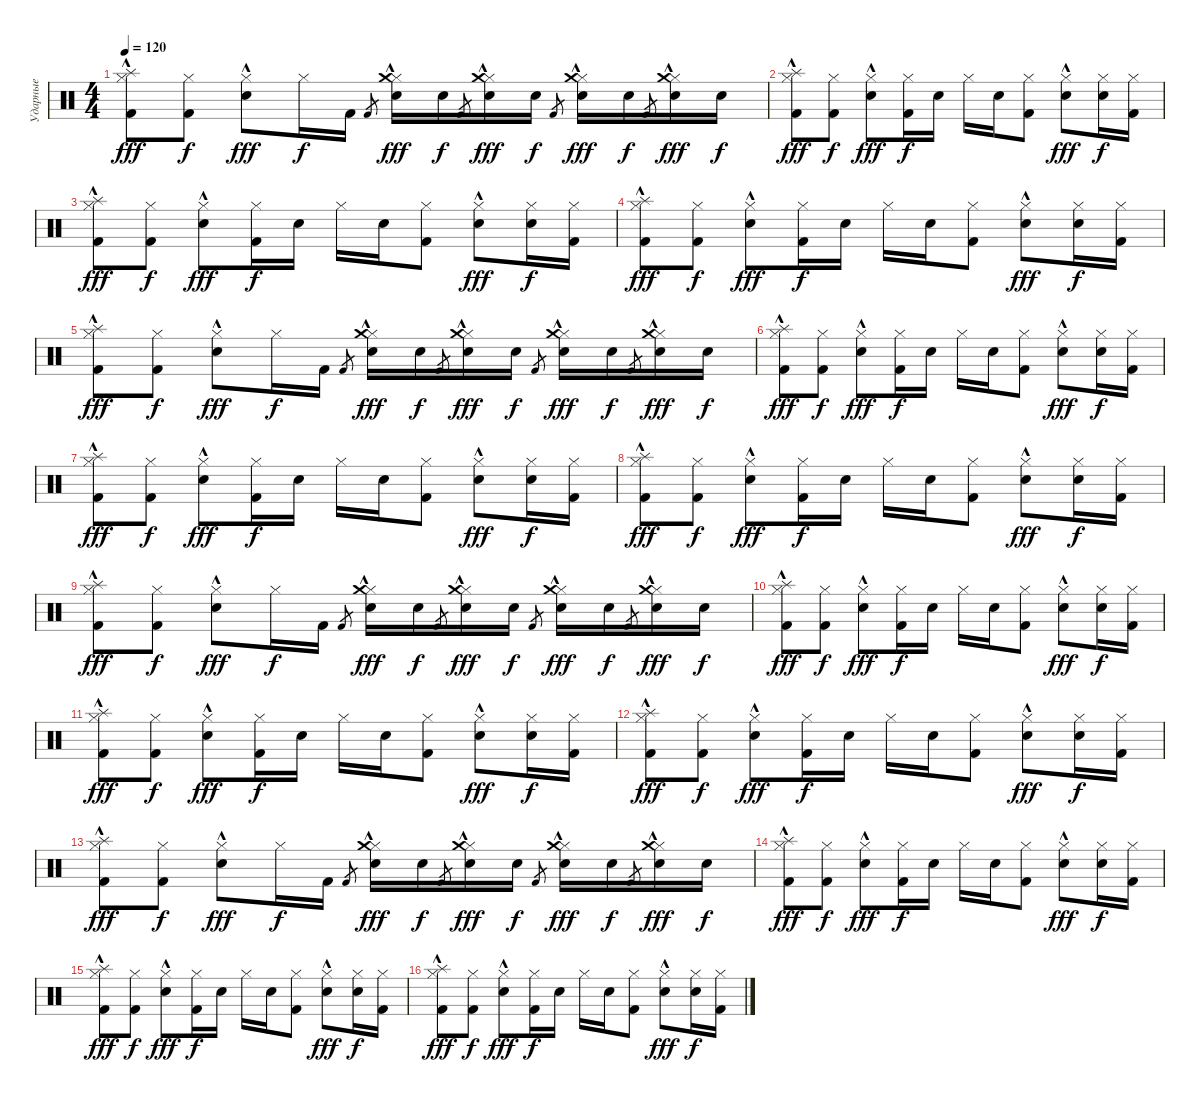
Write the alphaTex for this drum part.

\track ("Ударные" "Ударные") {instrument percussion}
\staff {score}
\articulation defaults
\ts (4 4)
\tempo 120
\clef neutral
\ks c
("Hi-Hat (closed)" "Splash (hit)" "Kick (hit) 2"{hac}).8{dy fff} ("Hi-Hat (closed)" "Kick (hit) 2").8{dy f} ("Hi-Hat (closed)" "Snare (hit) 2"{hac}).8{dy fff} "Hi-Hat (closed)".16{dy f} "Kick (hit) 2".16 "Kick (hit) 2".8{gr} ("Hi-Hat (closed)" "Crash medium (hit)" "Electric Snare (hit)"{hac}).16{dy fff} "Snare (hit) 2".16{dy f} "Kick (hit) 2".8{gr} ("Hi-Hat (closed)" "Crash medium (hit)" "Electric Snare (hit)"{hac}).16{dy fff} "Snare (hit) 2".16{dy f} "Kick (hit) 2".8{gr} ("Hi-Hat (closed)" "Crash medium (hit)" "Electric Snare (hit)"{hac}).16{dy fff} "Snare (hit) 2".16{dy f} "Kick (hit) 2".8{gr} ("Hi-Hat (closed)" "Crash medium (hit)" "Electric Snare (hit)"{hac}).16{dy fff} "Snare (hit) 2".16{dy f} |
("Hi-Hat (closed)" "Splash (hit)" "Kick (hit) 2"{hac}).8{dy fff} ("Hi-Hat (closed)" "Kick (hit) 2").8{dy f} ("Hi-Hat (closed)" "Snare (hit) 2"{hac}).8{dy fff} ("Hi-Hat (closed)" "Kick (hit) 2").16{dy f} "Snare (hit) 2".16 "Hi-Hat (closed)".16 "Snare (hit) 2".16 ("Hi-Hat (closed)" "Kick (hit) 2").8 ("Hi-Hat (closed)" "Snare (hit) 2"{hac}).8{dy fff} ("Hi-Hat (closed)" "Snare (hit) 2").16{dy f} ("Hi-Hat (closed)" "Kick (hit) 2").16 |
("Hi-Hat (closed)" "Splash (hit)" "Kick (hit) 2"{hac}).8{dy fff} ("Hi-Hat (closed)" "Kick (hit) 2").8{dy f} ("Hi-Hat (closed)" "Snare (hit) 2"{hac}).8{dy fff} ("Hi-Hat (closed)" "Kick (hit) 2").16{dy f} "Snare (hit) 2".16 "Hi-Hat (closed)".16 "Snare (hit) 2".16 ("Hi-Hat (closed)" "Kick (hit) 2").8 ("Hi-Hat (closed)" "Snare (hit) 2"{hac}).8{dy fff} ("Hi-Hat (closed)" "Snare (hit) 2").16{dy f} ("Hi-Hat (closed)" "Kick (hit) 2").16 |
("Hi-Hat (closed)" "Splash (hit)" "Kick (hit) 2"{hac}).8{dy fff} ("Hi-Hat (closed)" "Kick (hit) 2").8{dy f} ("Hi-Hat (closed)" "Snare (hit) 2"{hac}).8{dy fff} ("Hi-Hat (closed)" "Kick (hit) 2").16{dy f} "Snare (hit) 2".16 "Hi-Hat (closed)".16 "Snare (hit) 2".16 ("Hi-Hat (closed)" "Kick (hit) 2").8 ("Hi-Hat (closed)" "Snare (hit) 2"{hac}).8{dy fff} ("Hi-Hat (closed)" "Snare (hit) 2").16{dy f} ("Hi-Hat (closed)" "Kick (hit) 2").16 |
("Hi-Hat (closed)" "Splash (hit)" "Kick (hit) 2"{hac}).8{dy fff} ("Hi-Hat (closed)" "Kick (hit) 2").8{dy f} ("Hi-Hat (closed)" "Snare (hit) 2"{hac}).8{dy fff} "Hi-Hat (closed)".16{dy f} "Kick (hit) 2".16 "Kick (hit) 2".8{gr} ("Hi-Hat (closed)" "Crash medium (hit)" "Electric Snare (hit)"{hac}).16{dy fff} "Snare (hit) 2".16{dy f} "Kick (hit) 2".8{gr} ("Hi-Hat (closed)" "Crash medium (hit)" "Electric Snare (hit)"{hac}).16{dy fff} "Snare (hit) 2".16{dy f} "Kick (hit) 2".8{gr} ("Hi-Hat (closed)" "Crash medium (hit)" "Electric Snare (hit)"{hac}).16{dy fff} "Snare (hit) 2".16{dy f} "Kick (hit) 2".8{gr} ("Hi-Hat (closed)" "Crash medium (hit)" "Electric Snare (hit)"{hac}).16{dy fff} "Snare (hit) 2".16{dy f} |
("Hi-Hat (closed)" "Splash (hit)" "Kick (hit) 2"{hac}).8{dy fff} ("Hi-Hat (closed)" "Kick (hit) 2").8{dy f} ("Hi-Hat (closed)" "Snare (hit) 2"{hac}).8{dy fff} ("Hi-Hat (closed)" "Kick (hit) 2").16{dy f} "Snare (hit) 2".16 "Hi-Hat (closed)".16 "Snare (hit) 2".16 ("Hi-Hat (closed)" "Kick (hit) 2").8 ("Hi-Hat (closed)" "Snare (hit) 2"{hac}).8{dy fff} ("Hi-Hat (closed)" "Snare (hit) 2").16{dy f} ("Hi-Hat (closed)" "Kick (hit) 2").16 |
("Hi-Hat (closed)" "Splash (hit)" "Kick (hit) 2"{hac}).8{dy fff} ("Hi-Hat (closed)" "Kick (hit) 2").8{dy f} ("Hi-Hat (closed)" "Snare (hit) 2"{hac}).8{dy fff} ("Hi-Hat (closed)" "Kick (hit) 2").16{dy f} "Snare (hit) 2".16 "Hi-Hat (closed)".16 "Snare (hit) 2".16 ("Hi-Hat (closed)" "Kick (hit) 2").8 ("Hi-Hat (closed)" "Snare (hit) 2"{hac}).8{dy fff} ("Hi-Hat (closed)" "Snare (hit) 2").16{dy f} ("Hi-Hat (closed)" "Kick (hit) 2").16 |
("Hi-Hat (closed)" "Splash (hit)" "Kick (hit) 2"{hac}).8{dy fff} ("Hi-Hat (closed)" "Kick (hit) 2").8{dy f} ("Hi-Hat (closed)" "Snare (hit) 2"{hac}).8{dy fff} ("Hi-Hat (closed)" "Kick (hit) 2").16{dy f} "Snare (hit) 2".16 "Hi-Hat (closed)".16 "Snare (hit) 2".16 ("Hi-Hat (closed)" "Kick (hit) 2").8 ("Hi-Hat (closed)" "Snare (hit) 2"{hac}).8{dy fff} ("Hi-Hat (closed)" "Snare (hit) 2").16{dy f} ("Hi-Hat (closed)" "Kick (hit) 2").16 |
("Hi-Hat (closed)" "Splash (hit)" "Kick (hit) 2"{hac}).8{dy fff} ("Hi-Hat (closed)" "Kick (hit) 2").8{dy f} ("Hi-Hat (closed)" "Snare (hit) 2"{hac}).8{dy fff} "Hi-Hat (closed)".16{dy f} "Kick (hit) 2".16 "Kick (hit) 2".8{gr} ("Hi-Hat (closed)" "Crash medium (hit)" "Electric Snare (hit)"{hac}).16{dy fff} "Snare (hit) 2".16{dy f} "Kick (hit) 2".8{gr} ("Hi-Hat (closed)" "Crash medium (hit)" "Electric Snare (hit)"{hac}).16{dy fff} "Snare (hit) 2".16{dy f} "Kick (hit) 2".8{gr} ("Hi-Hat (closed)" "Crash medium (hit)" "Electric Snare (hit)"{hac}).16{dy fff} "Snare (hit) 2".16{dy f} "Kick (hit) 2".8{gr} ("Hi-Hat (closed)" "Crash medium (hit)" "Electric Snare (hit)"{hac}).16{dy fff} "Snare (hit) 2".16{dy f} |
("Hi-Hat (closed)" "Splash (hit)" "Kick (hit) 2"{hac}).8{dy fff} ("Hi-Hat (closed)" "Kick (hit) 2").8{dy f} ("Hi-Hat (closed)" "Snare (hit) 2"{hac}).8{dy fff} ("Hi-Hat (closed)" "Kick (hit) 2").16{dy f} "Snare (hit) 2".16 "Hi-Hat (closed)".16 "Snare (hit) 2".16 ("Hi-Hat (closed)" "Kick (hit) 2").8 ("Hi-Hat (closed)" "Snare (hit) 2"{hac}).8{dy fff} ("Hi-Hat (closed)" "Snare (hit) 2").16{dy f} ("Hi-Hat (closed)" "Kick (hit) 2").16 |
("Hi-Hat (closed)" "Splash (hit)" "Kick (hit) 2"{hac}).8{dy fff} ("Hi-Hat (closed)" "Kick (hit) 2").8{dy f} ("Hi-Hat (closed)" "Snare (hit) 2"{hac}).8{dy fff} ("Hi-Hat (closed)" "Kick (hit) 2").16{dy f} "Snare (hit) 2".16 "Hi-Hat (closed)".16 "Snare (hit) 2".16 ("Hi-Hat (closed)" "Kick (hit) 2").8 ("Hi-Hat (closed)" "Snare (hit) 2"{hac}).8{dy fff} ("Hi-Hat (closed)" "Snare (hit) 2").16{dy f} ("Hi-Hat (closed)" "Kick (hit) 2").16 |
("Hi-Hat (closed)" "Splash (hit)" "Kick (hit) 2"{hac}).8{dy fff} ("Hi-Hat (closed)" "Kick (hit) 2").8{dy f} ("Hi-Hat (closed)" "Snare (hit) 2"{hac}).8{dy fff} ("Hi-Hat (closed)" "Kick (hit) 2").16{dy f} "Snare (hit) 2".16 "Hi-Hat (closed)".16 "Snare (hit) 2".16 ("Hi-Hat (closed)" "Kick (hit) 2").8 ("Hi-Hat (closed)" "Snare (hit) 2"{hac}).8{dy fff} ("Hi-Hat (closed)" "Snare (hit) 2").16{dy f} ("Hi-Hat (closed)" "Kick (hit) 2").16 |
("Hi-Hat (closed)" "Splash (hit)" "Kick (hit) 2"{hac}).8{dy fff} ("Hi-Hat (closed)" "Kick (hit) 2").8{dy f} ("Hi-Hat (closed)" "Snare (hit) 2"{hac}).8{dy fff} "Hi-Hat (closed)".16{dy f} "Kick (hit) 2".16 "Kick (hit) 2".8{gr} ("Hi-Hat (closed)" "Crash medium (hit)" "Electric Snare (hit)"{hac}).16{dy fff} "Snare (hit) 2".16{dy f} "Kick (hit) 2".8{gr} ("Hi-Hat (closed)" "Crash medium (hit)" "Electric Snare (hit)"{hac}).16{dy fff} "Snare (hit) 2".16{dy f} "Kick (hit) 2".8{gr} ("Hi-Hat (closed)" "Crash medium (hit)" "Electric Snare (hit)"{hac}).16{dy fff} "Snare (hit) 2".16{dy f} "Kick (hit) 2".8{gr} ("Hi-Hat (closed)" "Crash medium (hit)" "Electric Snare (hit)"{hac}).16{dy fff} "Snare (hit) 2".16{dy f} |
("Hi-Hat (closed)" "Splash (hit)" "Kick (hit) 2"{hac}).8{dy fff} ("Hi-Hat (closed)" "Kick (hit) 2").8{dy f} ("Hi-Hat (closed)" "Snare (hit) 2"{hac}).8{dy fff} ("Hi-Hat (closed)" "Kick (hit) 2").16{dy f} "Snare (hit) 2".16 "Hi-Hat (closed)".16 "Snare (hit) 2".16 ("Hi-Hat (closed)" "Kick (hit) 2").8 ("Hi-Hat (closed)" "Snare (hit) 2"{hac}).8{dy fff} ("Hi-Hat (closed)" "Snare (hit) 2").16{dy f} ("Hi-Hat (closed)" "Kick (hit) 2").16 |
("Hi-Hat (closed)" "Splash (hit)" "Kick (hit) 2"{hac}).8{dy fff} ("Hi-Hat (closed)" "Kick (hit) 2").8{dy f} ("Hi-Hat (closed)" "Snare (hit) 2"{hac}).8{dy fff} ("Hi-Hat (closed)" "Kick (hit) 2").16{dy f} "Snare (hit) 2".16 "Hi-Hat (closed)".16 "Snare (hit) 2".16 ("Hi-Hat (closed)" "Kick (hit) 2").8 ("Hi-Hat (closed)" "Snare (hit) 2"{hac}).8{dy fff} ("Hi-Hat (closed)" "Snare (hit) 2").16{dy f} ("Hi-Hat (closed)" "Kick (hit) 2").16 |
("Hi-Hat (closed)" "Splash (hit)" "Kick (hit) 2"{hac}).8{dy fff} ("Hi-Hat (closed)" "Kick (hit) 2").8{dy f} ("Hi-Hat (closed)" "Snare (hit) 2"{hac}).8{dy fff} ("Hi-Hat (closed)" "Kick (hit) 2").16{dy f} "Snare (hit) 2".16 "Hi-Hat (closed)".16 "Snare (hit) 2".16 ("Hi-Hat (closed)" "Kick (hit) 2").8 ("Hi-Hat (closed)" "Snare (hit) 2"{hac}).8{dy fff} ("Hi-Hat (closed)" "Snare (hit) 2").16{dy f} ("Hi-Hat (closed)" "Kick (hit) 2").16
